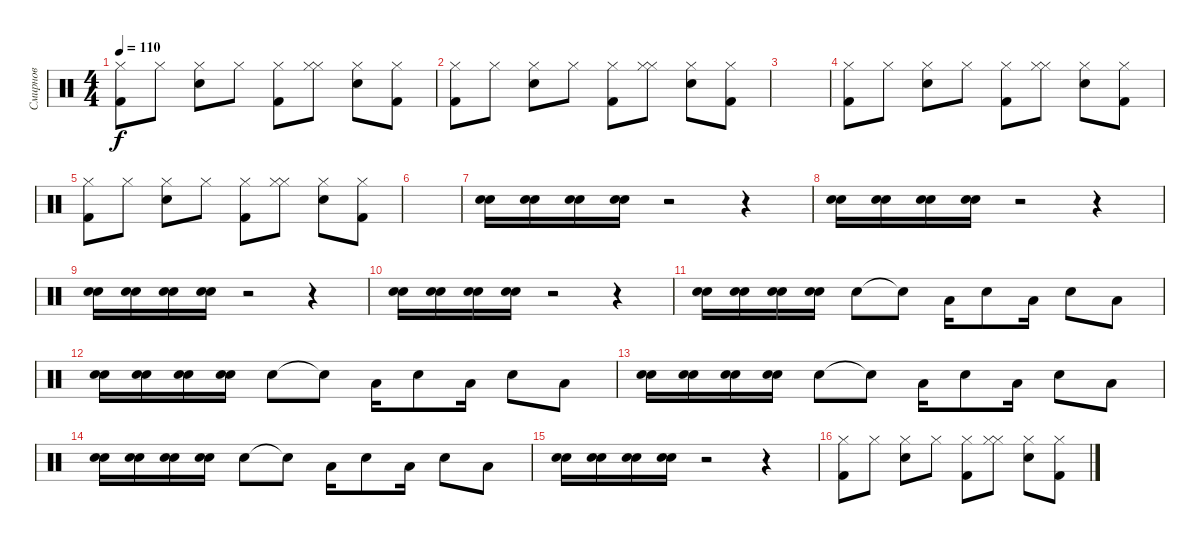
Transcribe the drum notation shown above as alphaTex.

\track ("Смирнов" "Смирнов") {instrument percussion}
\staff {score}
\articulation defaults
\ts (4 4)
\tempo 110
\clef neutral
\ks c
("Kick (hit) 2" "Hi-Hat (closed)").8{dy f} "Hi-Hat (closed)".8 ("Snare (hit) 2" "Hi-Hat (closed)").8 "Hi-Hat (closed)".8 ("Kick (hit) 2" "Hi-Hat (closed)").8 ("Hi-Hat (closed)" "Hi-Hat (closed)").8 ("Snare (hit) 2" "Hi-Hat (closed)").8 ("Kick (hit) 2" "Hi-Hat (closed)").8 |
("Kick (hit) 2" "Hi-Hat (closed)").8 "Hi-Hat (closed)".8 ("Snare (hit) 2" "Hi-Hat (closed)").8 "Hi-Hat (closed)".8 ("Kick (hit) 2" "Hi-Hat (closed)").8 ("Hi-Hat (closed)" "Hi-Hat (closed)").8 ("Snare (hit) 2" "Hi-Hat (closed)").8 ("Kick (hit) 2" "Hi-Hat (closed)").8 |
|
("Kick (hit) 2" "Hi-Hat (closed)").8 "Hi-Hat (closed)".8 ("Snare (hit) 2" "Hi-Hat (closed)").8 "Hi-Hat (closed)".8 ("Kick (hit) 2" "Hi-Hat (closed)").8 ("Hi-Hat (closed)" "Hi-Hat (closed)").8 ("Snare (hit) 2" "Hi-Hat (closed)").8 ("Kick (hit) 2" "Hi-Hat (closed)").8 |
("Kick (hit) 2" "Hi-Hat (closed)").8 "Hi-Hat (closed)".8 ("Snare (hit) 2" "Hi-Hat (closed)").8 "Hi-Hat (closed)".8 ("Kick (hit) 2" "Hi-Hat (closed)").8 ("Hi-Hat (closed)" "Hi-Hat (closed)").8 ("Snare (hit) 2" "Hi-Hat (closed)").8 ("Kick (hit) 2" "Hi-Hat (closed)").8 |
|
("Snare (hit) 2" "Electric Snare (hit)").16 ("Snare (hit) 2" "Electric Snare (hit)").16 ("Snare (hit) 2" "Electric Snare (hit)").16 ("Snare (hit) 2" "Electric Snare (hit)").16 r.2 r.4 |
("Snare (hit) 2" "Electric Snare (hit)").16 ("Snare (hit) 2" "Electric Snare (hit)").16 ("Snare (hit) 2" "Electric Snare (hit)").16 ("Snare (hit) 2" "Electric Snare (hit)").16 r.2 r.4 |
("Snare (hit) 2" "Electric Snare (hit)").16 ("Snare (hit) 2" "Electric Snare (hit)").16 ("Snare (hit) 2" "Electric Snare (hit)").16 ("Snare (hit) 2" "Electric Snare (hit)").16 r.2 r.4 |
("Snare (hit) 2" "Electric Snare (hit)").16 ("Snare (hit) 2" "Electric Snare (hit)").16 ("Snare (hit) 2" "Electric Snare (hit)").16 ("Snare (hit) 2" "Electric Snare (hit)").16 r.2 r.4 |
("Snare (hit) 2" "Electric Snare (hit)").16 ("Snare (hit) 2" "Electric Snare (hit)").16 ("Snare (hit) 2" "Electric Snare (hit)").16 ("Snare (hit) 2" "Electric Snare (hit)").16 "Electric Snare (hit)".8 "Snare (hit)"{t}.8 "Low Floor Tom (hit)".16 "Electric Snare (hit)".8 "Low Floor Tom (hit)".16 "Electric Snare (hit)".8 "Low Floor Tom (hit)".8 |
("Snare (hit) 2" "Electric Snare (hit)").16 ("Snare (hit) 2" "Electric Snare (hit)").16 ("Snare (hit) 2" "Electric Snare (hit)").16 ("Snare (hit) 2" "Electric Snare (hit)").16 "Electric Snare (hit)".8 "Snare (hit)"{t}.8 "Low Floor Tom (hit)".16 "Electric Snare (hit)".8 "Low Floor Tom (hit)".16 "Electric Snare (hit)".8 "Low Floor Tom (hit)".8 |
("Snare (hit) 2" "Electric Snare (hit)").16 ("Snare (hit) 2" "Electric Snare (hit)").16 ("Snare (hit) 2" "Electric Snare (hit)").16 ("Snare (hit) 2" "Electric Snare (hit)").16 "Electric Snare (hit)".8 "Snare (hit)"{t}.8 "Low Floor Tom (hit)".16 "Electric Snare (hit)".8 "Low Floor Tom (hit)".16 "Electric Snare (hit)".8 "Low Floor Tom (hit)".8 |
("Snare (hit) 2" "Electric Snare (hit)").16 ("Snare (hit) 2" "Electric Snare (hit)").16 ("Snare (hit) 2" "Electric Snare (hit)").16 ("Snare (hit) 2" "Electric Snare (hit)").16 "Electric Snare (hit)".8 "Snare (hit)"{t}.8 "Low Floor Tom (hit)".16 "Electric Snare (hit)".8 "Low Floor Tom (hit)".16 "Electric Snare (hit)".8 "Low Floor Tom (hit)".8 |
("Snare (hit) 2" "Electric Snare (hit)").16 ("Snare (hit) 2" "Electric Snare (hit)").16 ("Snare (hit) 2" "Electric Snare (hit)").16 ("Snare (hit) 2" "Electric Snare (hit)").16 r.2 r.4 |
("Kick (hit) 2" "Hi-Hat (closed)").8 "Hi-Hat (closed)".8 ("Snare (hit) 2" "Hi-Hat (closed)").8 "Hi-Hat (closed)".8 ("Kick (hit) 2" "Hi-Hat (closed)").8 ("Hi-Hat (closed)" "Hi-Hat (closed)").8 ("Snare (hit) 2" "Hi-Hat (closed)").8 ("Kick (hit) 2" "Hi-Hat (closed)").8
